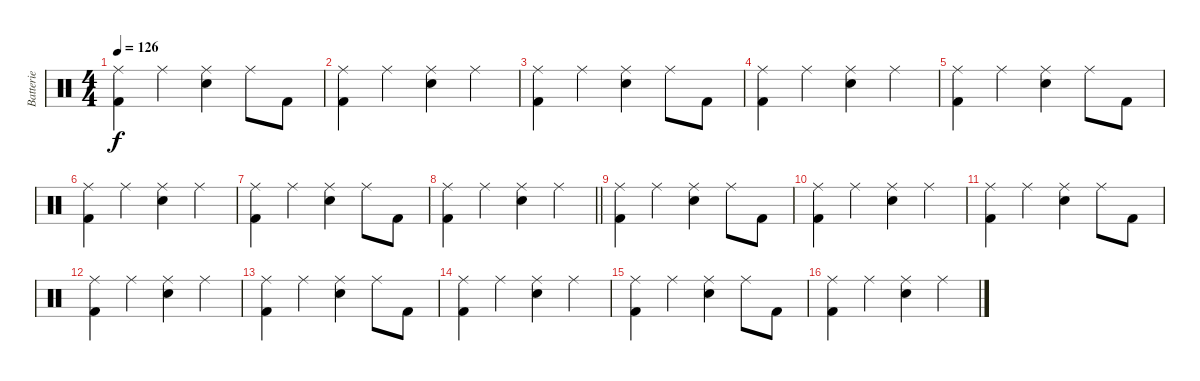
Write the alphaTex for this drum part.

\track ("Batterie" "Batterie") {instrument percussion}
\staff {score}
\articulation defaults
\ts (4 4)
\tempo 126
\clef neutral
\ks c
("Ride (middle)" "Kick (hit) 2").4{dy f} "Ride (middle)".4 ("Ride (middle)" "Snare (hit) 2").4 "Ride (middle)".8 "Kick (hit) 2".8 |
("Ride (middle)" "Kick (hit) 2").4 "Ride (middle)".4 ("Ride (middle)" "Snare (hit) 2").4 "Ride (middle)".4 |
("Ride (middle)" "Kick (hit) 2").4 "Ride (middle)".4 ("Ride (middle)" "Snare (hit) 2").4 "Ride (middle)".8 "Kick (hit) 2".8 |
("Ride (middle)" "Kick (hit) 2").4 "Ride (middle)".4 ("Ride (middle)" "Snare (hit) 2").4 "Ride (middle)".4 |
("Ride (middle)" "Kick (hit) 2").4 "Ride (middle)".4 ("Ride (middle)" "Snare (hit) 2").4 "Ride (middle)".8 "Kick (hit) 2".8 |
("Ride (middle)" "Kick (hit) 2").4 "Ride (middle)".4 ("Ride (middle)" "Snare (hit) 2").4 "Ride (middle)".4 |
("Ride (middle)" "Kick (hit) 2").4 "Ride (middle)".4 ("Ride (middle)" "Snare (hit) 2").4 "Ride (middle)".8 "Kick (hit) 2".8 |
\barLineRight lightlight
("Ride (middle)" "Kick (hit) 2").4 "Ride (middle)".4 ("Ride (middle)" "Snare (hit) 2").4 "Ride (middle)".4 |
("Ride (middle)" "Kick (hit) 2").4 "Ride (middle)".4 ("Ride (middle)" "Snare (hit) 2").4 "Ride (middle)".8 "Kick (hit) 2".8 |
("Ride (middle)" "Kick (hit) 2").4 "Ride (middle)".4 ("Ride (middle)" "Snare (hit) 2").4 "Ride (middle)".4 |
("Ride (middle)" "Kick (hit) 2").4 "Ride (middle)".4 ("Ride (middle)" "Snare (hit) 2").4 "Ride (middle)".8 "Kick (hit) 2".8 |
("Ride (middle)" "Kick (hit) 2").4 "Ride (middle)".4 ("Ride (middle)" "Snare (hit) 2").4 "Ride (middle)".4 |
("Ride (middle)" "Kick (hit) 2").4 "Ride (middle)".4 ("Ride (middle)" "Snare (hit) 2").4 "Ride (middle)".8 "Kick (hit) 2".8 |
("Ride (middle)" "Kick (hit) 2").4 "Ride (middle)".4 ("Ride (middle)" "Snare (hit) 2").4 "Ride (middle)".4 |
("Ride (middle)" "Kick (hit) 2").4 "Ride (middle)".4 ("Ride (middle)" "Snare (hit) 2").4 "Ride (middle)".8 "Kick (hit) 2".8 |
("Ride (middle)" "Kick (hit) 2").4 "Ride (middle)".4 ("Ride (middle)" "Snare (hit) 2").4 "Ride (middle)".4
